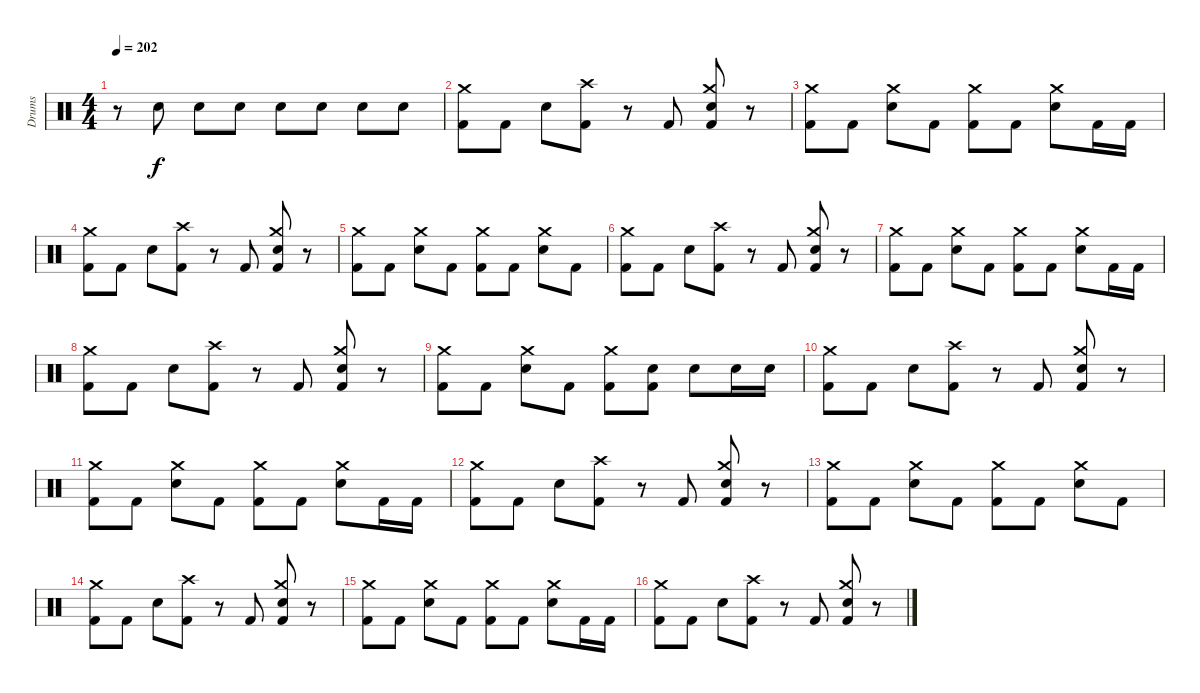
\track ("Drums" "Drums") {instrument percussion}
\staff {score}
\articulation defaults
\ts (4 4)
\tempo 202
\clef neutral
\ks c
r.8{dy f} "Electric Snare (hit)".8 "Electric Snare (hit)".8 "Electric Snare (hit)".8 "Electric Snare (hit)".8 "Electric Snare (hit)".8 "Electric Snare (hit)".8 "Electric Snare (hit)".8 |
("Crash medium (hit)" "Kick (hit) 2").8 "Kick (hit) 2".8 "Electric Snare (hit)".8 ("Crash high (hit)" "Kick (hit) 2").8 r.8 "Kick (hit) 2".8 ("Crash medium (hit)" "Electric Snare (hit)" "Kick (hit) 2").8 r.8 |
("Crash medium (hit)" "Kick (hit) 2").8 "Kick (hit) 2".8 ("Crash medium (hit)" "Electric Snare (hit)").8 "Kick (hit) 2".8 ("Crash medium (hit)" "Kick (hit) 2").8 "Kick (hit) 2".8 ("Crash medium (hit)" "Electric Snare (hit)").8 "Kick (hit) 2".16 "Kick (hit) 2".16 |
("Crash medium (hit)" "Kick (hit) 2").8 "Kick (hit) 2".8 "Electric Snare (hit)".8 ("Crash high (hit)" "Kick (hit) 2").8 r.8 "Kick (hit) 2".8 ("Crash medium (hit)" "Electric Snare (hit)" "Kick (hit) 2").8 r.8 |
("Crash medium (hit)" "Kick (hit) 2").8 "Kick (hit) 2".8 ("Crash medium (hit)" "Electric Snare (hit)").8 "Kick (hit) 2".8 ("Crash medium (hit)" "Kick (hit) 2").8 "Kick (hit) 2".8 ("Crash medium (hit)" "Electric Snare (hit)").8 "Kick (hit) 2".8 |
("Crash medium (hit)" "Kick (hit) 2").8 "Kick (hit) 2".8 "Electric Snare (hit)".8 ("Crash high (hit)" "Kick (hit) 2").8 r.8 "Kick (hit) 2".8 ("Crash medium (hit)" "Electric Snare (hit)" "Kick (hit) 2").8 r.8 |
("Crash medium (hit)" "Kick (hit) 2").8 "Kick (hit) 2".8 ("Crash medium (hit)" "Electric Snare (hit)").8 "Kick (hit) 2".8 ("Crash medium (hit)" "Kick (hit) 2").8 "Kick (hit) 2".8 ("Crash medium (hit)" "Electric Snare (hit)").8 "Kick (hit) 2".16 "Kick (hit) 2".16 |
("Crash medium (hit)" "Kick (hit) 2").8 "Kick (hit) 2".8 "Electric Snare (hit)".8 ("Crash high (hit)" "Kick (hit) 2").8 r.8 "Kick (hit) 2".8 ("Crash medium (hit)" "Electric Snare (hit)" "Kick (hit) 2").8 r.8 |
("Crash medium (hit)" "Kick (hit) 2").8 "Kick (hit) 2".8 ("Crash medium (hit)" "Electric Snare (hit)").8 "Kick (hit) 2".8 ("Crash medium (hit)" "Kick (hit) 2").8 ("Electric Snare (hit)" "Kick (hit) 2").8 "Electric Snare (hit)".8 "Electric Snare (hit)".16 "Electric Snare (hit)".16 |
("Crash medium (hit)" "Kick (hit) 2").8 "Kick (hit) 2".8 "Electric Snare (hit)".8 ("Crash high (hit)" "Kick (hit) 2").8 r.8 "Kick (hit) 2".8 ("Crash medium (hit)" "Electric Snare (hit)" "Kick (hit) 2").8 r.8 |
("Crash medium (hit)" "Kick (hit) 2").8 "Kick (hit) 2".8 ("Crash medium (hit)" "Electric Snare (hit)").8 "Kick (hit) 2".8 ("Crash medium (hit)" "Kick (hit) 2").8 "Kick (hit) 2".8 ("Crash medium (hit)" "Electric Snare (hit)").8 "Kick (hit) 2".16 "Kick (hit) 2".16 |
("Crash medium (hit)" "Kick (hit) 2").8 "Kick (hit) 2".8 "Electric Snare (hit)".8 ("Crash high (hit)" "Kick (hit) 2").8 r.8 "Kick (hit) 2".8 ("Crash medium (hit)" "Electric Snare (hit)" "Kick (hit) 2").8 r.8 |
("Crash medium (hit)" "Kick (hit) 2").8 "Kick (hit) 2".8 ("Crash medium (hit)" "Electric Snare (hit)").8 "Kick (hit) 2".8 ("Crash medium (hit)" "Kick (hit) 2").8 "Kick (hit) 2".8 ("Crash medium (hit)" "Electric Snare (hit)").8 "Kick (hit) 2".8 |
("Crash medium (hit)" "Kick (hit) 2").8 "Kick (hit) 2".8 "Electric Snare (hit)".8 ("Crash high (hit)" "Kick (hit) 2").8 r.8 "Kick (hit) 2".8 ("Crash medium (hit)" "Electric Snare (hit)" "Kick (hit) 2").8 r.8 |
("Crash medium (hit)" "Kick (hit) 2").8 "Kick (hit) 2".8 ("Crash medium (hit)" "Electric Snare (hit)").8 "Kick (hit) 2".8 ("Crash medium (hit)" "Kick (hit) 2").8 "Kick (hit) 2".8 ("Crash medium (hit)" "Electric Snare (hit)").8 "Kick (hit) 2".16 "Kick (hit) 2".16 |
("Crash medium (hit)" "Kick (hit) 2").8 "Kick (hit) 2".8 "Electric Snare (hit)".8 ("Crash high (hit)" "Kick (hit) 2").8 r.8 "Kick (hit) 2".8 ("Crash medium (hit)" "Electric Snare (hit)" "Kick (hit) 2").8 r.8
